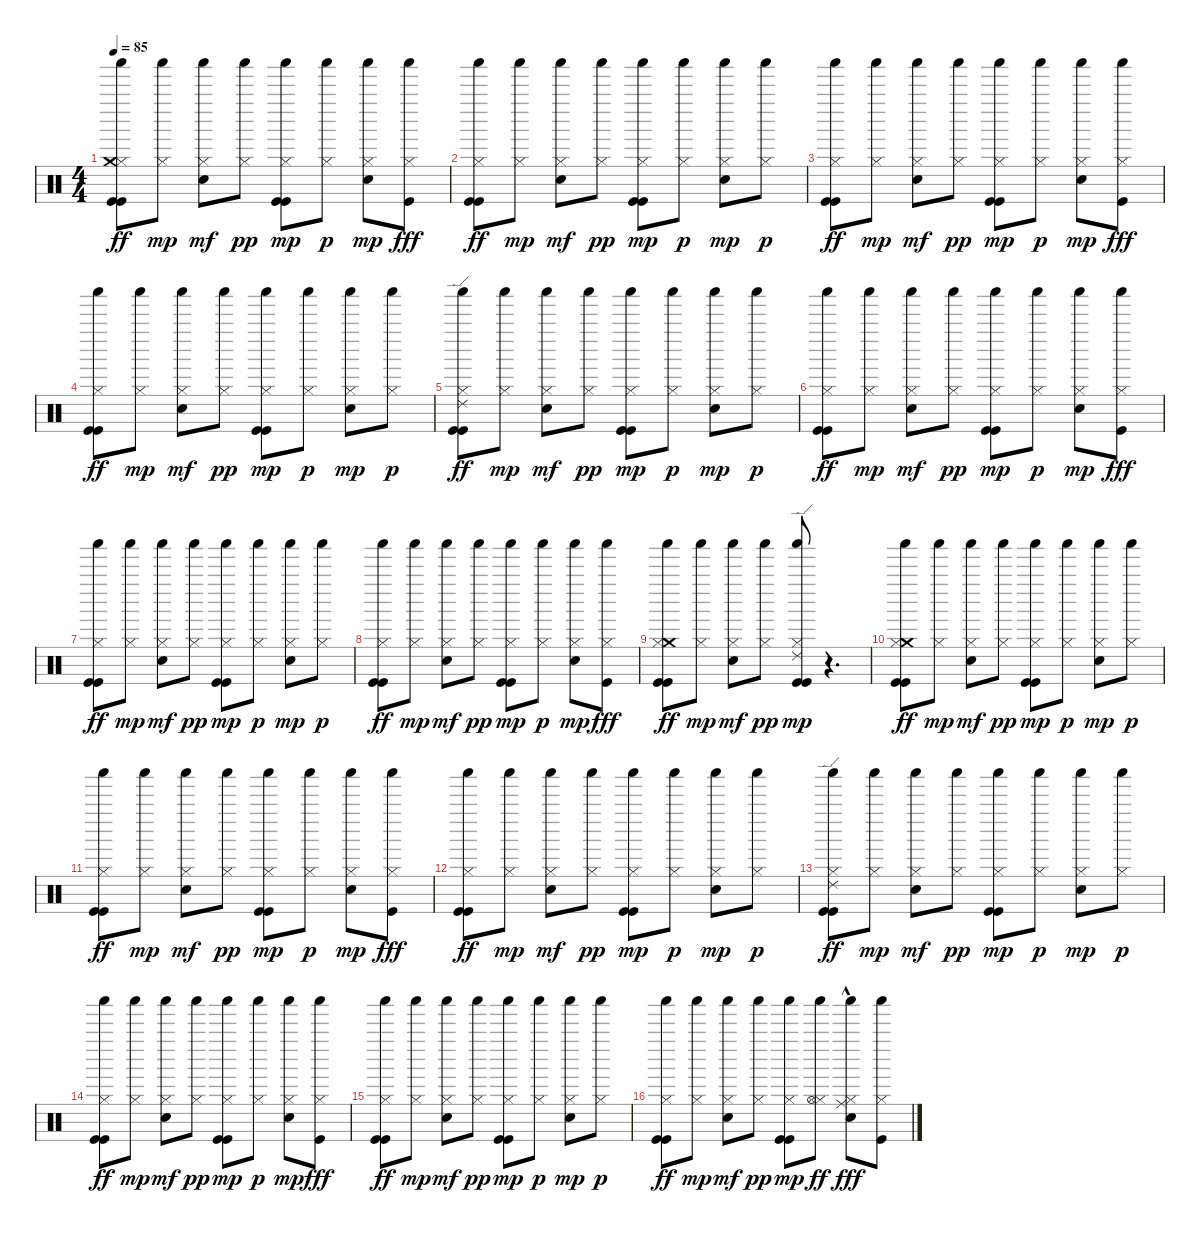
\track "" {instrument percussion}
\staff {score}
\articulation defaults
\ts (4 4)
\tempo 85
\clef neutral
\ks c
("Kick (hit)" "Hi-Hat (closed)" "Shaker (hit)" "Kick (hit)" "Crash medium (hit)").8{dy ff} ("Hi-Hat (closed)" "Shaker (hit)").8{dy mp} ("Hi-Hat (closed)" "Shaker (hit)" "Metronome (bell)").8{dy mf} ("Hi-Hat (closed)" "Shaker (hit)").8{dy pp} ("Kick (hit)" "Kick (hit)" "Hi-Hat (closed)" "Shaker (hit)").8{dy mp} ("Hi-Hat (closed)" "Shaker (hit)").8{dy p} ("Metronome (bell)" "Shaker (hit)" "Hi-Hat (closed)").8{dy mp} ("Hi-Hat (closed)" "Shaker (hit)" "Kick (hit)").8{dy fff} |
("Kick (hit)" "Hi-Hat (closed)" "Shaker (hit)" "Kick (hit)").8{dy ff} ("Hi-Hat (closed)" "Shaker (hit)").8{dy mp} ("Hi-Hat (closed)" "Shaker (hit)" "Metronome (bell)").8{dy mf} ("Hi-Hat (closed)" "Shaker (hit)").8{dy pp} ("Kick (hit)" "Kick (hit)" "Hi-Hat (closed)" "Shaker (hit)").8{dy mp} ("Hi-Hat (closed)" "Shaker (hit)").8{dy p} ("Metronome (bell)" "Shaker (hit)" "Hi-Hat (closed)").8{dy mp} ("Hi-Hat (closed)" "Shaker (hit)").8{dy p} |
("Kick (hit)" "Hi-Hat (closed)" "Shaker (hit)" "Kick (hit)").8{dy ff} ("Hi-Hat (closed)" "Shaker (hit)").8{dy mp} ("Hi-Hat (closed)" "Shaker (hit)" "Metronome (bell)").8{dy mf} ("Hi-Hat (closed)" "Shaker (hit)").8{dy pp} ("Kick (hit)" "Kick (hit)" "Hi-Hat (closed)" "Shaker (hit)").8{dy mp} ("Hi-Hat (closed)" "Shaker (hit)").8{dy p} ("Metronome (bell)" "Shaker (hit)" "Hi-Hat (closed)").8{dy mp} ("Hi-Hat (closed)" "Shaker (hit)" "Kick (hit)").8{dy fff} |
("Kick (hit)" "Hi-Hat (closed)" "Shaker (hit)" "Kick (hit)").8{dy ff} ("Hi-Hat (closed)" "Shaker (hit)").8{dy mp} ("Hi-Hat (closed)" "Shaker (hit)" "Metronome (bell)").8{dy mf} ("Hi-Hat (closed)" "Shaker (hit)").8{dy pp} ("Kick (hit)" "Kick (hit)" "Hi-Hat (closed)" "Shaker (hit)").8{dy mp} ("Hi-Hat (closed)" "Shaker (hit)").8{dy p} ("Metronome (bell)" "Shaker (hit)" "Hi-Hat (closed)").8{dy mp} ("Hi-Hat (closed)" "Shaker (hit)").8{dy p} |
("Kick (hit)" "Hi-Hat (closed)" "Shaker (hit)" "Kick (hit)" "Ride (edge) 2").8{dy ff} ("Hi-Hat (closed)" "Shaker (hit)").8{dy mp} ("Hi-Hat (closed)" "Shaker (hit)" "Metronome (bell)").8{dy mf} ("Hi-Hat (closed)" "Shaker (hit)").8{dy pp} ("Kick (hit)" "Kick (hit)" "Hi-Hat (closed)" "Shaker (hit)").8{dy mp} ("Hi-Hat (closed)" "Shaker (hit)").8{dy p} ("Metronome (bell)" "Shaker (hit)" "Hi-Hat (closed)").8{dy mp} ("Hi-Hat (closed)" "Shaker (hit)").8{dy p} |
("Kick (hit)" "Hi-Hat (closed)" "Shaker (hit)" "Kick (hit)").8{dy ff} ("Hi-Hat (closed)" "Shaker (hit)").8{dy mp} ("Hi-Hat (closed)" "Shaker (hit)" "Metronome (bell)").8{dy mf} ("Hi-Hat (closed)" "Shaker (hit)").8{dy pp} ("Kick (hit)" "Kick (hit)" "Hi-Hat (closed)" "Shaker (hit)").8{dy mp} ("Hi-Hat (closed)" "Shaker (hit)").8{dy p} ("Metronome (bell)" "Shaker (hit)" "Hi-Hat (closed)").8{dy mp} ("Hi-Hat (closed)" "Shaker (hit)" "Kick (hit)").8{dy fff} |
("Kick (hit)" "Hi-Hat (closed)" "Shaker (hit)" "Kick (hit)").8{dy ff} ("Hi-Hat (closed)" "Shaker (hit)").8{dy mp} ("Hi-Hat (closed)" "Shaker (hit)" "Metronome (bell)").8{dy mf} ("Hi-Hat (closed)" "Shaker (hit)").8{dy pp} ("Kick (hit)" "Kick (hit)" "Hi-Hat (closed)" "Shaker (hit)").8{dy mp} ("Hi-Hat (closed)" "Shaker (hit)").8{dy p} ("Metronome (bell)" "Shaker (hit)" "Hi-Hat (closed)").8{dy mp} ("Hi-Hat (closed)" "Shaker (hit)").8{dy p} |
("Kick (hit)" "Hi-Hat (closed)" "Shaker (hit)" "Kick (hit)").8{dy ff} ("Hi-Hat (closed)" "Shaker (hit)").8{dy mp} ("Hi-Hat (closed)" "Shaker (hit)" "Metronome (bell)").8{dy mf} ("Hi-Hat (closed)" "Shaker (hit)").8{dy pp} ("Kick (hit)" "Kick (hit)" "Hi-Hat (closed)" "Shaker (hit)").8{dy mp} ("Hi-Hat (closed)" "Shaker (hit)").8{dy p} ("Metronome (bell)" "Shaker (hit)" "Hi-Hat (closed)").8{dy mp} ("Hi-Hat (closed)" "Shaker (hit)" "Kick (hit)").8{dy fff} |
("Crash medium (hit)" "Kick (hit)" "Hi-Hat (closed)" "Shaker (hit)" "Kick (hit)").8{dy ff} ("Hi-Hat (closed)" "Shaker (hit)").8{dy mp} ("Hi-Hat (closed)" "Shaker (hit)" "Metronome (bell)").8{dy mf} ("Hi-Hat (closed)" "Shaker (hit)").8{dy pp} ("Ride (edge) 2" "Kick (hit)" "Kick (hit)" "Hi-Hat (closed)" "Shaker (hit)").8{dy mp} r.4{d} |
("Crash medium (hit)" "Kick (hit)" "Hi-Hat (closed)" "Shaker (hit)" "Kick (hit)").8{dy ff} ("Hi-Hat (closed)" "Shaker (hit)").8{dy mp} ("Hi-Hat (closed)" "Shaker (hit)" "Metronome (bell)").8{dy mf} ("Hi-Hat (closed)" "Shaker (hit)").8{dy pp} ("Kick (hit)" "Kick (hit)" "Hi-Hat (closed)" "Shaker (hit)").8{dy mp} ("Hi-Hat (closed)" "Shaker (hit)").8{dy p} ("Metronome (bell)" "Shaker (hit)" "Hi-Hat (closed)").8{dy mp} ("Hi-Hat (closed)" "Shaker (hit)").8{dy p} |
("Kick (hit)" "Hi-Hat (closed)" "Shaker (hit)" "Kick (hit)").8{dy ff} ("Hi-Hat (closed)" "Shaker (hit)").8{dy mp} ("Hi-Hat (closed)" "Shaker (hit)" "Metronome (bell)").8{dy mf} ("Hi-Hat (closed)" "Shaker (hit)").8{dy pp} ("Kick (hit)" "Kick (hit)" "Hi-Hat (closed)" "Shaker (hit)").8{dy mp} ("Hi-Hat (closed)" "Shaker (hit)").8{dy p} ("Metronome (bell)" "Shaker (hit)" "Hi-Hat (closed)").8{dy mp} ("Hi-Hat (closed)" "Shaker (hit)" "Kick (hit)").8{dy fff} |
("Kick (hit)" "Hi-Hat (closed)" "Shaker (hit)" "Kick (hit)").8{dy ff} ("Hi-Hat (closed)" "Shaker (hit)").8{dy mp} ("Hi-Hat (closed)" "Shaker (hit)" "Metronome (bell)").8{dy mf} ("Hi-Hat (closed)" "Shaker (hit)").8{dy pp} ("Kick (hit)" "Kick (hit)" "Hi-Hat (closed)" "Shaker (hit)").8{dy mp} ("Hi-Hat (closed)" "Shaker (hit)").8{dy p} ("Metronome (bell)" "Shaker (hit)" "Hi-Hat (closed)").8{dy mp} ("Hi-Hat (closed)" "Shaker (hit)").8{dy p} |
("Ride (edge) 2" "Kick (hit)" "Hi-Hat (closed)" "Shaker (hit)" "Kick (hit)").8{dy ff} ("Hi-Hat (closed)" "Shaker (hit)").8{dy mp} ("Hi-Hat (closed)" "Shaker (hit)" "Metronome (bell)").8{dy mf} ("Hi-Hat (closed)" "Shaker (hit)").8{dy pp} ("Kick (hit)" "Kick (hit)" "Hi-Hat (closed)" "Shaker (hit)").8{dy mp} ("Hi-Hat (closed)" "Shaker (hit)").8{dy p} ("Metronome (bell)" "Shaker (hit)" "Hi-Hat (closed)").8{dy mp} ("Hi-Hat (closed)" "Shaker (hit)").8{dy p} |
("Kick (hit)" "Hi-Hat (closed)" "Shaker (hit)" "Kick (hit)").8{dy ff} ("Hi-Hat (closed)" "Shaker (hit)").8{dy mp} ("Hi-Hat (closed)" "Shaker (hit)" "Metronome (bell)").8{dy mf} ("Hi-Hat (closed)" "Shaker (hit)").8{dy pp} ("Kick (hit)" "Kick (hit)" "Hi-Hat (closed)" "Shaker (hit)").8{dy mp} ("Hi-Hat (closed)" "Shaker (hit)").8{dy p} ("Metronome (bell)" "Shaker (hit)" "Hi-Hat (closed)").8{dy mp} ("Hi-Hat (closed)" "Shaker (hit)" "Kick (hit)").8{dy fff} |
("Kick (hit)" "Hi-Hat (closed)" "Shaker (hit)" "Kick (hit)").8{dy ff} ("Hi-Hat (closed)" "Shaker (hit)").8{dy mp} ("Hi-Hat (closed)" "Shaker (hit)" "Metronome (bell)").8{dy mf} ("Hi-Hat (closed)" "Shaker (hit)").8{dy pp} ("Kick (hit)" "Kick (hit)" "Hi-Hat (closed)" "Shaker (hit)").8{dy mp} ("Hi-Hat (closed)" "Shaker (hit)").8{dy p} ("Metronome (bell)" "Shaker (hit)" "Hi-Hat (closed)").8{dy mp} ("Hi-Hat (closed)" "Shaker (hit)").8{dy p} |
("Kick (hit)" "Hi-Hat (closed)" "Shaker (hit)" "Kick (hit)").8{dy ff} ("Hi-Hat (closed)" "Shaker (hit)").8{dy mp} ("Hi-Hat (closed)" "Shaker (hit)" "Metronome (bell)").8{dy mf} ("Hi-Hat (closed)" "Shaker (hit)").8{dy pp} ("Kick (hit)" "Kick (hit)" "Hi-Hat (closed)" "Shaker (hit)").8{dy mp} ("Hi-Hat (closed)" "Shaker (hit)" "Hi-Hat (open)").8{dy ff} ("Metronome (bell)" "Shaker (hit)" "Hi-Hat (closed)" "Ride (middle)"{hac}).8{dy fff} ("Hi-Hat (closed)" "Shaker (hit)" "Kick (hit)").8
